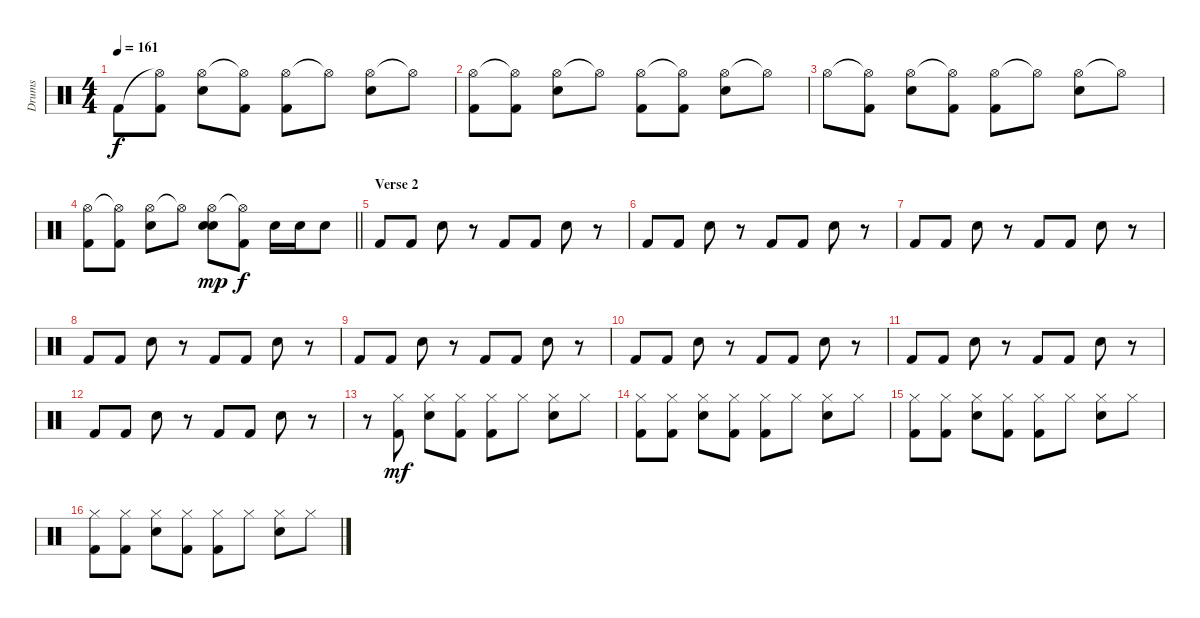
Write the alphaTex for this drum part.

\track ("Drums" "Drums") {instrument percussion}
\staff {score}
\articulation defaults
\ts (4 4)
\tempo 161
\clef neutral
\ks c "Kick (hit) 2".8{dy f}
("Hi-Hat (open)"{t} "Kick (hit) 2").8 ("Hi-Hat (open)" "Electric Snare (hit)").8 ("Hi-Hat (open)"{t} "Kick (hit) 2").8 ("Hi-Hat (open)" "Kick (hit) 2").8 "Hi-Hat (open)"{t}.8 ("Hi-Hat (open)" "Electric Snare (hit)").8 "Hi-Hat (open)"{t}.8 |
("Hi-Hat (open)" "Kick (hit) 2").8 ("Hi-Hat (open)"{t} "Kick (hit) 2").8 ("Hi-Hat (open)" "Electric Snare (hit)").8 "Hi-Hat (open)"{t}.8 ("Hi-Hat (open)" "Kick (hit) 2").8 ("Hi-Hat (open)"{t} "Kick (hit) 2").8 ("Hi-Hat (open)" "Electric Snare (hit)").8 "Hi-Hat (open)"{t}.8 |
"Hi-Hat (open)".8 ("Hi-Hat (open)"{t} "Kick (hit) 2").8 ("Hi-Hat (open)" "Electric Snare (hit)").8 ("Hi-Hat (open)"{t} "Kick (hit) 2").8 ("Hi-Hat (open)" "Kick (hit) 2").8 "Hi-Hat (open)"{t}.8 ("Hi-Hat (open)" "Electric Snare (hit)").8 "Hi-Hat (open)"{t}.8 |
\barLineRight lightlight
("Hi-Hat (open)" "Kick (hit) 2").8 ("Hi-Hat (open)"{t} "Kick (hit) 2").8 ("Hi-Hat (open)" "Electric Snare (hit)").8 "Hi-Hat (open)"{t}.8 ("Hi-Hat (open)" "Electric Snare (hit)" "Electric Snare (hit)").8{dy mp} ("Hi-Hat (open)"{t} "Kick (hit) 2").8{dy f} "Electric Snare (hit)".16 "Electric Snare (hit)".16 "Electric Snare (hit)".8 |
\section ("" "Verse 2")
"Kick (hit) 2".8{volume 13} "Kick (hit) 2".8 "Electric Snare (hit)".8 r.8 "Kick (hit) 2".8 "Kick (hit) 2".8 "Electric Snare (hit)".8 r.8 |
"Kick (hit) 2".8 "Kick (hit) 2".8 "Electric Snare (hit)".8 r.8 "Kick (hit) 2".8 "Kick (hit) 2".8 "Electric Snare (hit)".8 r.8 |
"Kick (hit) 2".8 "Kick (hit) 2".8 "Electric Snare (hit)".8 r.8 "Kick (hit) 2".8 "Kick (hit) 2".8 "Electric Snare (hit)".8 r.8 |
"Kick (hit) 2".8 "Kick (hit) 2".8 "Electric Snare (hit)".8 r.8 "Kick (hit) 2".8 "Kick (hit) 2".8 "Electric Snare (hit)".8 r.8 |
"Kick (hit) 2".8 "Kick (hit) 2".8 "Electric Snare (hit)".8 r.8 "Kick (hit) 2".8 "Kick (hit) 2".8 "Electric Snare (hit)".8 r.8 |
"Kick (hit) 2".8 "Kick (hit) 2".8 "Electric Snare (hit)".8 r.8 "Kick (hit) 2".8 "Kick (hit) 2".8 "Electric Snare (hit)".8 r.8 |
"Kick (hit) 2".8 "Kick (hit) 2".8 "Electric Snare (hit)".8 r.8 "Kick (hit) 2".8 "Kick (hit) 2".8 "Electric Snare (hit)".8 r.8 |
"Kick (hit) 2".8 "Kick (hit) 2".8 "Electric Snare (hit)".8 r.8 "Kick (hit) 2".8 "Kick (hit) 2".8 "Electric Snare (hit)".8 r.8 |
r.8{volume 14} ("Hi-Hat (closed)" "Kick (hit) 2").8{dy mf} ("Hi-Hat (closed)" "Electric Snare (hit)").8 ("Hi-Hat (closed)" "Kick (hit) 2").8 ("Hi-Hat (closed)" "Kick (hit) 2").8 "Hi-Hat (closed)".8 ("Hi-Hat (closed)" "Electric Snare (hit)").8 "Hi-Hat (closed)".8 |
("Hi-Hat (closed)" "Kick (hit) 2").8 ("Hi-Hat (closed)" "Kick (hit) 2").8 ("Hi-Hat (closed)" "Electric Snare (hit)").8 ("Hi-Hat (closed)" "Kick (hit) 2").8 ("Hi-Hat (closed)" "Kick (hit) 2").8 "Hi-Hat (closed)".8 ("Hi-Hat (closed)" "Electric Snare (hit)").8 "Hi-Hat (closed)".8 |
("Hi-Hat (closed)" "Kick (hit) 2").8 ("Hi-Hat (closed)" "Kick (hit) 2").8 ("Hi-Hat (closed)" "Electric Snare (hit)").8 ("Hi-Hat (closed)" "Kick (hit) 2").8 ("Hi-Hat (closed)" "Kick (hit) 2").8 "Hi-Hat (closed)".8 ("Hi-Hat (closed)" "Electric Snare (hit)").8 "Hi-Hat (closed)".8 |
("Hi-Hat (closed)" "Kick (hit) 2").8 ("Hi-Hat (closed)" "Kick (hit) 2").8 ("Hi-Hat (closed)" "Electric Snare (hit)").8 ("Hi-Hat (closed)" "Kick (hit) 2").8 ("Hi-Hat (closed)" "Kick (hit) 2").8 "Hi-Hat (closed)".8 ("Hi-Hat (closed)" "Electric Snare (hit)").8 "Hi-Hat (closed)".8
